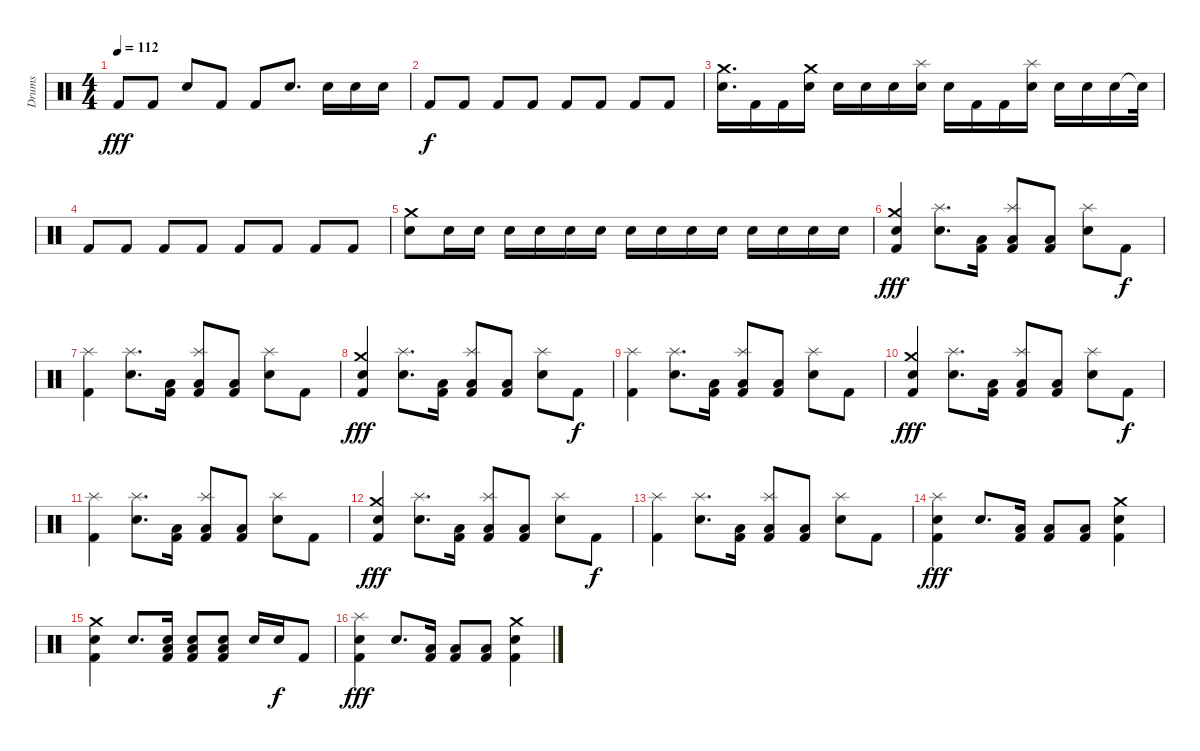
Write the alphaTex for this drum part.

\track ("Drums" "Drums") {instrument percussion}
\staff {score}
\articulation defaults
\ts (4 4)
\tempo 112
\clef neutral
\ks c "Kick (hit) 2".8{dy fff} "Kick (hit) 2".8 "Electric Snare (hit)".8 "Kick (hit) 2".8 "Kick (hit) 2".8 "Electric Snare (hit)".8{d} "Electric Snare (hit)".16 "Electric Snare (hit)".16 "Electric Snare (hit)".16
|
"Kick (hit) 2".8{dy f} "Kick (hit) 2".8 "Kick (hit) 2".8 "Kick (hit) 2".8 "Kick (hit) 2".8 "Kick (hit) 2".8 "Kick (hit) 2".8 "Kick (hit) 2".8 |
("Crash medium (hit)" "Snare (hit) 2").16{d} "Kick (hit) 2".16 "Kick (hit) 2".16 ("Crash medium (hit)" "Electric Snare (hit)").16 "Electric Snare (hit)".16 "Snare (hit) 2".16 "Snare (hit) 2".16 ("Splash (hit)" "Snare (hit) 2").16 "Snare (hit) 2".16 "Kick (hit) 2".16 "Kick (hit) 2".16 ("Splash (hit)" "Electric Snare (hit)").16 "Snare (hit) 2".16 "Snare (hit) 2".16 "Snare (hit) 2".16 "Snare (hit) 2"{t}.32 |
"Kick (hit) 2".8 "Kick (hit) 2".8 "Kick (hit) 2".8 "Kick (hit) 2".8 "Kick (hit) 2".8 "Kick (hit) 2".8 "Kick (hit) 2".8 "Kick (hit) 2".8 |
("Crash medium (hit)" "Electric Snare (hit)").8 "Electric Snare (hit)".16 "Electric Snare (hit)".16 "Electric Snare (hit)".16 "Electric Snare (hit)".16 "Electric Snare (hit)".16 "Electric Snare (hit)".16 "Electric Snare (hit)".16 "Electric Snare (hit)".16 "Electric Snare (hit)".16 "Electric Snare (hit)".16 "Electric Snare (hit)".16 "Electric Snare (hit)".16 "Electric Snare (hit)".16 "Electric Snare (hit)".16 |
("Crash medium (hit)" "Snare (hit) 2" "Kick (hit) 2").4{dy fff} ("Splash (hit)" "Electric Snare (hit)").8{d} ("Kick (hit) 2" "Low Floor Tom (hit)").16 ("Splash (hit)" "Kick (hit) 2" "Low Floor Tom (hit)").8 ("Kick (hit) 2" "Low Floor Tom (hit)").8 ("Splash (hit)" "Electric Snare (hit)").8 "Kick (hit) 2".8{dy f} |
("Splash (hit)" "Kick (hit) 2").4 ("Splash (hit)" "Electric Snare (hit)").8{d} ("Kick (hit) 2" "Low Floor Tom (hit)").16 ("Splash (hit)" "Kick (hit) 2" "Low Floor Tom (hit)").8 ("Kick (hit) 2" "Low Floor Tom (hit)").8 ("Splash (hit)" "Electric Snare (hit)").8 "Kick (hit) 2".8 |
("Crash medium (hit)" "Snare (hit) 2" "Kick (hit) 2").4{dy fff} ("Splash (hit)" "Electric Snare (hit)").8{d} ("Kick (hit) 2" "Low Floor Tom (hit)").16 ("Splash (hit)" "Kick (hit) 2" "Low Floor Tom (hit)").8 ("Kick (hit) 2" "Low Floor Tom (hit)").8 ("Splash (hit)" "Electric Snare (hit)").8 "Kick (hit) 2".8{dy f} |
("Splash (hit)" "Kick (hit) 2").4 ("Splash (hit)" "Electric Snare (hit)").8{d} ("Kick (hit) 2" "Low Floor Tom (hit)").16 ("Splash (hit)" "Kick (hit) 2" "Low Floor Tom (hit)").8 ("Kick (hit) 2" "Low Floor Tom (hit)").8 ("Splash (hit)" "Electric Snare (hit)").8 "Kick (hit) 2".8 |
("Crash medium (hit)" "Snare (hit) 2" "Kick (hit) 2").4{dy fff} ("Splash (hit)" "Electric Snare (hit)").8{d} ("Kick (hit) 2" "Low Floor Tom (hit)").16 ("Splash (hit)" "Kick (hit) 2" "Low Floor Tom (hit)").8 ("Kick (hit) 2" "Low Floor Tom (hit)").8 ("Splash (hit)" "Electric Snare (hit)").8 "Kick (hit) 2".8{dy f} |
("Splash (hit)" "Kick (hit) 2").4 ("Splash (hit)" "Electric Snare (hit)").8{d} ("Kick (hit) 2" "Low Floor Tom (hit)").16 ("Splash (hit)" "Kick (hit) 2" "Low Floor Tom (hit)").8 ("Kick (hit) 2" "Low Floor Tom (hit)").8 ("Splash (hit)" "Electric Snare (hit)").8 "Kick (hit) 2".8 |
("Crash medium (hit)" "Snare (hit) 2" "Kick (hit) 2").4{dy fff} ("Splash (hit)" "Electric Snare (hit)").8{d} ("Kick (hit) 2" "Low Floor Tom (hit)").16 ("Splash (hit)" "Kick (hit) 2" "Low Floor Tom (hit)").8 ("Kick (hit) 2" "Low Floor Tom (hit)").8 ("Splash (hit)" "Electric Snare (hit)").8 "Kick (hit) 2".8{dy f} |
("Splash (hit)" "Kick (hit) 2").4 ("Splash (hit)" "Electric Snare (hit)").8{d} ("Kick (hit) 2" "Low Floor Tom (hit)").16 ("Splash (hit)" "Kick (hit) 2" "Low Floor Tom (hit)").8 ("Kick (hit) 2" "Low Floor Tom (hit)").8 ("Splash (hit)" "Electric Snare (hit)").8 "Kick (hit) 2".8 |
("Splash (hit)" "Snare (hit) 2" "Kick (hit) 2").4{dy fff} "Electric Snare (hit)".8{d} ("Kick (hit) 2" "Low Floor Tom (hit)").16 ("Kick (hit) 2" "Low Floor Tom (hit)").8 ("Kick (hit) 2" "Low Floor Tom (hit)").8 ("Crash medium (hit)" "Electric Snare (hit)" "Kick (hit) 2").4 |
("Crash medium (hit)" "Electric Snare (hit)" "Kick (hit) 2").4 "Electric Snare (hit)".8{d} ("Kick (hit) 2" "Snare (hit) 2" "Low Floor Tom (hit)").16 ("Kick (hit) 2" "Snare (hit) 2" "Low Floor Tom (hit)").8 ("Kick (hit) 2" "Snare (hit) 2" "Low Floor Tom (hit)").8 "Electric Snare (hit)".16 "Electric Snare (hit)".16{dy f} "Kick (hit) 2".8 |
("Splash (hit)" "Snare (hit) 2" "Kick (hit) 2").4{dy fff} "Electric Snare (hit)".8{d} ("Kick (hit) 2" "Low Floor Tom (hit)").16 ("Kick (hit) 2" "Low Floor Tom (hit)").8 ("Kick (hit) 2" "Low Floor Tom (hit)").8 ("Crash medium (hit)" "Electric Snare (hit)" "Kick (hit) 2").4
